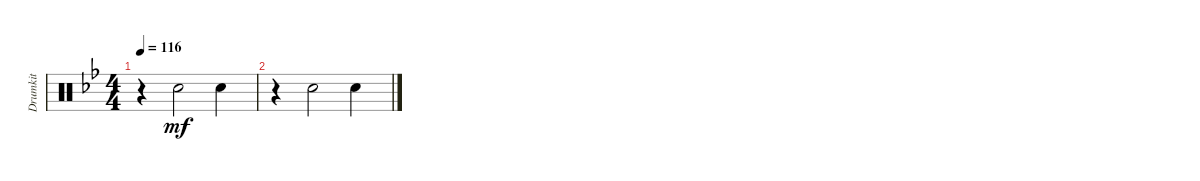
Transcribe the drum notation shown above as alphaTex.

\track ("Drumkit" "Drumkit") {instrument percussion}
\staff {score}
\articulation defaults
\ts (4 4)
\tempo 116
\clef neutral
\ks bb
r.4{dy mf} "Snare (hit) 2".2 "Snare (hit) 2".4 |
r.4 "Snare (hit) 2".2 "Snare (hit) 2".4
